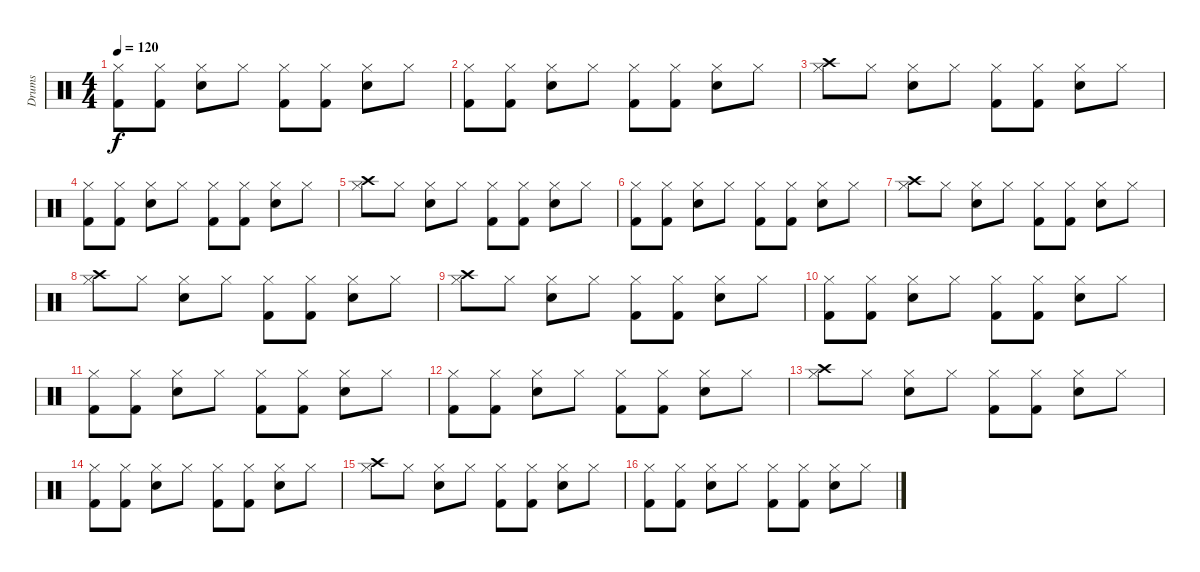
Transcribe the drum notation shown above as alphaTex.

\track ("Drums" "Drums") {instrument percussion}
\staff {score}
\articulation defaults
\ts (4 4)
\tempo 120
\clef neutral
\ks c
("Hi-Hat (closed)" "Kick (hit) 2").8{dy f} ("Hi-Hat (closed)" "Kick (hit) 2").8 ("Hi-Hat (closed)" "Snare (hit) 2").8 "Hi-Hat (closed)".8 ("Hi-Hat (closed)" "Kick (hit) 2").8 ("Hi-Hat (closed)" "Kick (hit) 2").8 ("Hi-Hat (closed)" "Snare (hit) 2").8 "Hi-Hat (closed)".8 |
("Hi-Hat (closed)" "Kick (hit) 2").8 ("Hi-Hat (closed)" "Kick (hit) 2").8 ("Hi-Hat (closed)" "Snare (hit) 2").8 "Hi-Hat (closed)".8 ("Hi-Hat (closed)" "Kick (hit) 2").8 ("Hi-Hat (closed)" "Kick (hit) 2").8 ("Hi-Hat (closed)" "Snare (hit) 2").8 "Hi-Hat (closed)".8 |
("Crash high (hit)" "Hi-Hat (closed)").8 "Hi-Hat (closed)".8 ("Hi-Hat (closed)" "Snare (hit) 2").8 "Hi-Hat (closed)".8 ("Hi-Hat (closed)" "Kick (hit) 2").8 ("Hi-Hat (closed)" "Kick (hit) 2").8 ("Hi-Hat (closed)" "Snare (hit) 2").8 "Hi-Hat (closed)".8 |
("Hi-Hat (closed)" "Kick (hit) 2").8 ("Hi-Hat (closed)" "Kick (hit) 2").8 ("Hi-Hat (closed)" "Snare (hit) 2").8 "Hi-Hat (closed)".8 ("Hi-Hat (closed)" "Kick (hit) 2").8 ("Hi-Hat (closed)" "Kick (hit) 2").8 ("Hi-Hat (closed)" "Snare (hit) 2").8 "Hi-Hat (closed)".8 |
("Crash high (hit)" "Hi-Hat (closed)").8 "Hi-Hat (closed)".8 ("Hi-Hat (closed)" "Snare (hit) 2").8 "Hi-Hat (closed)".8 ("Hi-Hat (closed)" "Kick (hit) 2").8 ("Hi-Hat (closed)" "Kick (hit) 2").8 ("Hi-Hat (closed)" "Snare (hit) 2").8 "Hi-Hat (closed)".8 |
("Hi-Hat (closed)" "Kick (hit) 2").8 ("Hi-Hat (closed)" "Kick (hit) 2").8 ("Hi-Hat (closed)" "Snare (hit) 2").8 "Hi-Hat (closed)".8 ("Hi-Hat (closed)" "Kick (hit) 2").8 ("Hi-Hat (closed)" "Kick (hit) 2").8 ("Hi-Hat (closed)" "Snare (hit) 2").8 "Hi-Hat (closed)".8 |
("Crash high (hit)" "Hi-Hat (closed)").8 "Hi-Hat (closed)".8 ("Hi-Hat (closed)" "Snare (hit) 2").8 "Hi-Hat (closed)".8 ("Hi-Hat (closed)" "Kick (hit) 2").8 ("Hi-Hat (closed)" "Kick (hit) 2").8 ("Hi-Hat (closed)" "Snare (hit) 2").8 "Hi-Hat (closed)".8 |
("Crash high (hit)" "Hi-Hat (closed)").8 "Hi-Hat (closed)".8 ("Hi-Hat (closed)" "Snare (hit) 2").8 "Hi-Hat (closed)".8 ("Hi-Hat (closed)" "Kick (hit) 2").8 ("Hi-Hat (closed)" "Kick (hit) 2").8 ("Hi-Hat (closed)" "Snare (hit) 2").8 "Hi-Hat (closed)".8 |
("Crash high (hit)" "Hi-Hat (closed)").8 "Hi-Hat (closed)".8 ("Hi-Hat (closed)" "Snare (hit) 2").8 "Hi-Hat (closed)".8 ("Hi-Hat (closed)" "Kick (hit) 2").8 ("Hi-Hat (closed)" "Kick (hit) 2").8 ("Hi-Hat (closed)" "Snare (hit) 2").8 "Hi-Hat (closed)".8 |
("Hi-Hat (closed)" "Kick (hit) 2").8 ("Hi-Hat (closed)" "Kick (hit) 2").8 ("Hi-Hat (closed)" "Snare (hit) 2").8 "Hi-Hat (closed)".8 ("Hi-Hat (closed)" "Kick (hit) 2").8 ("Hi-Hat (closed)" "Kick (hit) 2").8 ("Hi-Hat (closed)" "Snare (hit) 2").8 "Hi-Hat (closed)".8 |
("Hi-Hat (closed)" "Kick (hit) 2").8 ("Hi-Hat (closed)" "Kick (hit) 2").8 ("Hi-Hat (closed)" "Snare (hit) 2").8 "Hi-Hat (closed)".8 ("Hi-Hat (closed)" "Kick (hit) 2").8 ("Hi-Hat (closed)" "Kick (hit) 2").8 ("Hi-Hat (closed)" "Snare (hit) 2").8 "Hi-Hat (closed)".8 |
("Hi-Hat (closed)" "Kick (hit) 2").8 ("Hi-Hat (closed)" "Kick (hit) 2").8 ("Hi-Hat (closed)" "Snare (hit) 2").8 "Hi-Hat (closed)".8 ("Hi-Hat (closed)" "Kick (hit) 2").8 ("Hi-Hat (closed)" "Kick (hit) 2").8 ("Hi-Hat (closed)" "Snare (hit) 2").8 "Hi-Hat (closed)".8 |
("Crash high (hit)" "Hi-Hat (closed)").8 "Hi-Hat (closed)".8 ("Hi-Hat (closed)" "Snare (hit) 2").8 "Hi-Hat (closed)".8 ("Hi-Hat (closed)" "Kick (hit) 2").8 ("Hi-Hat (closed)" "Kick (hit) 2").8 ("Hi-Hat (closed)" "Snare (hit) 2").8 "Hi-Hat (closed)".8 |
("Hi-Hat (closed)" "Kick (hit) 2").8 ("Hi-Hat (closed)" "Kick (hit) 2").8 ("Hi-Hat (closed)" "Snare (hit) 2").8 "Hi-Hat (closed)".8 ("Hi-Hat (closed)" "Kick (hit) 2").8 ("Hi-Hat (closed)" "Kick (hit) 2").8 ("Hi-Hat (closed)" "Snare (hit) 2").8 "Hi-Hat (closed)".8 |
("Crash high (hit)" "Hi-Hat (closed)").8 "Hi-Hat (closed)".8 ("Hi-Hat (closed)" "Snare (hit) 2").8 "Hi-Hat (closed)".8 ("Hi-Hat (closed)" "Kick (hit) 2").8 ("Hi-Hat (closed)" "Kick (hit) 2").8 ("Hi-Hat (closed)" "Snare (hit) 2").8 "Hi-Hat (closed)".8 |
("Hi-Hat (closed)" "Kick (hit) 2").8 ("Hi-Hat (closed)" "Kick (hit) 2").8 ("Hi-Hat (closed)" "Snare (hit) 2").8 "Hi-Hat (closed)".8 ("Hi-Hat (closed)" "Kick (hit) 2").8 ("Hi-Hat (closed)" "Kick (hit) 2").8 ("Hi-Hat (closed)" "Snare (hit) 2").8 "Hi-Hat (closed)".8
